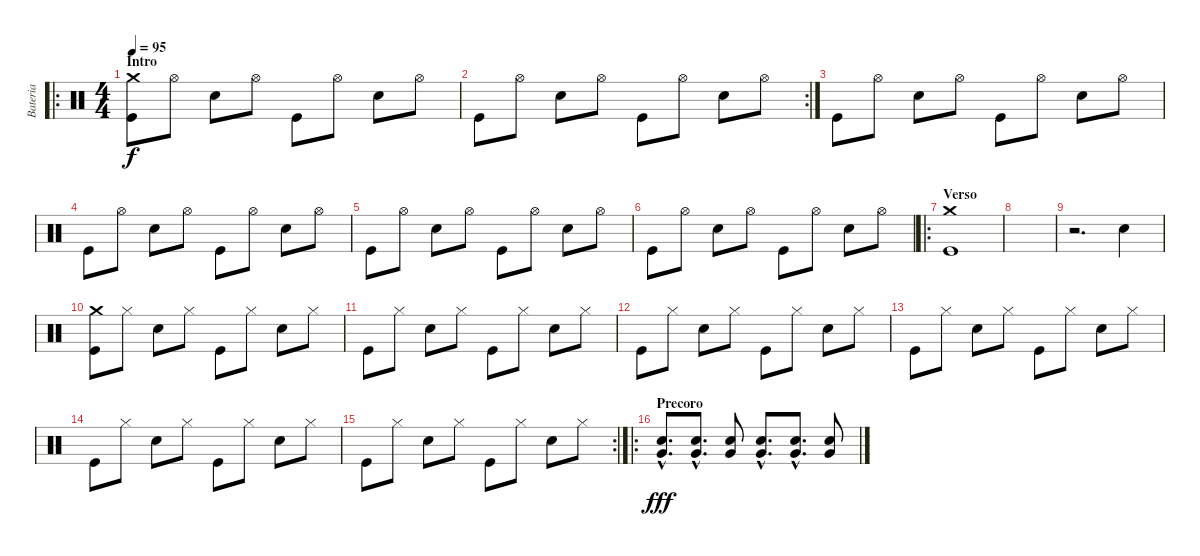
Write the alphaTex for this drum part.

\track ("Bateria" "Bateria") {instrument percussion}
\staff {score}
\articulation defaults
\ro
\ts (4 4)
\section ("" "Intro")
\tempo 95
\clef neutral
\ks c
("Crash medium (hit)" "Kick (hit)").8{dy f} "Hi-Hat (open)".8 "Electric Snare (hit)".8 "Hi-Hat (open)".8 "Kick (hit)".8 "Hi-Hat (open)".8 "Electric Snare (hit)".8 "Hi-Hat (open)".8 |
\rc 2 "Kick (hit)".8 "Hi-Hat (open)".8 "Electric Snare (hit)".8 "Hi-Hat (open)".8 "Kick (hit)".8 "Hi-Hat (open)".8 "Electric Snare (hit)".8 "Hi-Hat (open)".8
|
"Kick (hit)".8 "Hi-Hat (open)".8 "Electric Snare (hit)".8 "Hi-Hat (open)".8 "Kick (hit)".8 "Hi-Hat (open)".8 "Electric Snare (hit)".8 "Hi-Hat (open)".8 |
"Kick (hit)".8 "Hi-Hat (open)".8 "Electric Snare (hit)".8 "Hi-Hat (open)".8 "Kick (hit)".8 "Hi-Hat (open)".8 "Electric Snare (hit)".8 "Hi-Hat (open)".8 |
"Kick (hit)".8 "Hi-Hat (open)".8 "Electric Snare (hit)".8 "Hi-Hat (open)".8 "Kick (hit)".8 "Hi-Hat (open)".8 "Electric Snare (hit)".8 "Hi-Hat (open)".8 |
"Kick (hit)".8 "Hi-Hat (open)".8 "Electric Snare (hit)".8 "Hi-Hat (open)".8 "Kick (hit)".8 "Hi-Hat (open)".8 "Electric Snare (hit)".8 "Hi-Hat (open)".8 |
\ro
\section ("" "Verso")
("Crash medium (hit)" "Kick (hit)").1 |
|
r.2{d} "Electric Snare (hit)".4 |
("Crash medium (hit)" "Kick (hit)").8 "Hi-Hat (closed)".8 "Electric Snare (hit)".8 "Hi-Hat (closed)".8 "Kick (hit)".8 "Hi-Hat (closed)".8 "Electric Snare (hit)".8 "Hi-Hat (closed)".8 |
"Kick (hit)".8 "Hi-Hat (closed)".8 "Electric Snare (hit)".8 "Hi-Hat (closed)".8 "Kick (hit)".8 "Hi-Hat (closed)".8 "Electric Snare (hit)".8 "Hi-Hat (closed)".8 |
"Kick (hit)".8 "Hi-Hat (closed)".8 "Electric Snare (hit)".8 "Hi-Hat (closed)".8 "Kick (hit)".8 "Hi-Hat (closed)".8 "Electric Snare (hit)".8 "Hi-Hat (closed)".8 |
"Kick (hit)".8 "Hi-Hat (closed)".8 "Electric Snare (hit)".8 "Hi-Hat (closed)".8 "Kick (hit)".8 "Hi-Hat (closed)".8 "Electric Snare (hit)".8 "Hi-Hat (closed)".8 |
"Kick (hit)".8 "Hi-Hat (closed)".8 "Electric Snare (hit)".8 "Hi-Hat (closed)".8 "Kick (hit)".8 "Hi-Hat (closed)".8 "Electric Snare (hit)".8 "Hi-Hat (closed)".8 |
\rc 2 "Kick (hit)".8 "Hi-Hat (closed)".8 "Electric Snare (hit)".8 "Hi-Hat (closed)".8 "Kick (hit)".8 "Hi-Hat (closed)".8 "Electric Snare (hit)".8 "Hi-Hat (closed)".8
|
\ro
\section ("" "Precoro")
("Very Low Tom (hit)"{hac} "Electric Snare (hit)"{hac}).8{d dy fff} ("Very Low Tom (hit)"{hac} "Electric Snare (hit)"{hac}).8{d} ("Very Low Tom (hit)" "Electric Snare (hit)").8 ("Very Low Tom (hit)"{hac} "Electric Snare (hit)"{hac}).8{d} ("Very Low Tom (hit)"{hac} "Electric Snare (hit)"{hac}).8{d} ("Very Low Tom (hit)" "Electric Snare (hit)").8
